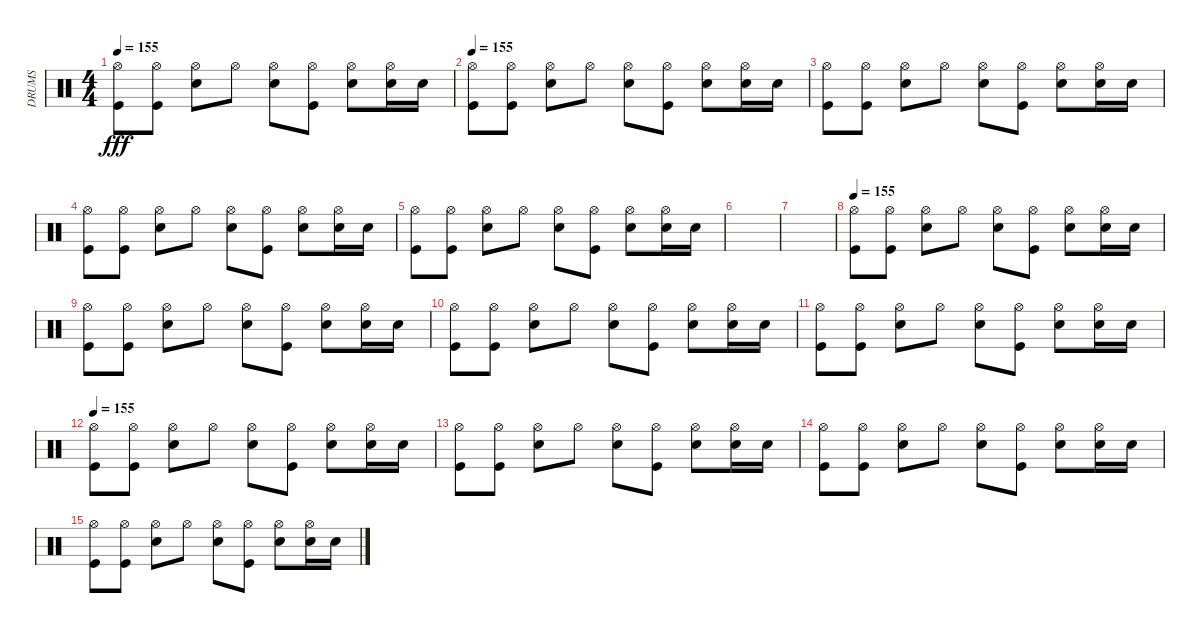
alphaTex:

\track ("DRUMS" "DRUMS") {instrument percussion}
\staff {score}
\articulation defaults
\ts (4 4)
\tempo 155
\clef neutral
\ks c
("Kick (hit)" "Hi-Hat (open)").8{dy fff} ("Kick (hit)" "Hi-Hat (open)").8 ("Snare (hit) 2" "Hi-Hat (open)").8 "Hi-Hat (open)".8 ("Snare (hit) 2" "Hi-Hat (open)").8 ("Kick (hit)" "Hi-Hat (open)").8 ("Snare (hit) 2" "Hi-Hat (open)").8 ("Snare (hit) 2" "Hi-Hat (open)").16 "Snare (hit) 2".16 |
\tempo 155
("Kick (hit)" "Hi-Hat (open)").8 ("Kick (hit)" "Hi-Hat (open)").8 ("Snare (hit) 2" "Hi-Hat (open)").8 "Hi-Hat (open)".8 ("Snare (hit) 2" "Hi-Hat (open)").8 ("Kick (hit)" "Hi-Hat (open)").8 ("Snare (hit) 2" "Hi-Hat (open)").8 ("Snare (hit) 2" "Hi-Hat (open)").16 "Snare (hit) 2".16 |
("Kick (hit)" "Hi-Hat (open)").8 ("Kick (hit)" "Hi-Hat (open)").8 ("Snare (hit) 2" "Hi-Hat (open)").8 "Hi-Hat (open)".8 ("Snare (hit) 2" "Hi-Hat (open)").8 ("Kick (hit)" "Hi-Hat (open)").8 ("Snare (hit) 2" "Hi-Hat (open)").8 ("Snare (hit) 2" "Hi-Hat (open)").16 "Snare (hit) 2".16 |
("Kick (hit)" "Hi-Hat (open)").8 ("Kick (hit)" "Hi-Hat (open)").8 ("Snare (hit) 2" "Hi-Hat (open)").8 "Hi-Hat (open)".8 ("Snare (hit) 2" "Hi-Hat (open)").8 ("Kick (hit)" "Hi-Hat (open)").8 ("Snare (hit) 2" "Hi-Hat (open)").8 ("Snare (hit) 2" "Hi-Hat (open)").16 "Snare (hit) 2".16 |
("Kick (hit)" "Hi-Hat (open)").8 ("Kick (hit)" "Hi-Hat (open)").8 ("Snare (hit) 2" "Hi-Hat (open)").8 "Hi-Hat (open)".8 ("Snare (hit) 2" "Hi-Hat (open)").8 ("Kick (hit)" "Hi-Hat (open)").8 ("Snare (hit) 2" "Hi-Hat (open)").8 ("Snare (hit) 2" "Hi-Hat (open)").16 "Snare (hit) 2".16 |
|
|
\tempo 155
("Kick (hit)" "Hi-Hat (open)").8{volume 11} ("Kick (hit)" "Hi-Hat (open)").8 ("Snare (hit) 2" "Hi-Hat (open)").8 "Hi-Hat (open)".8 ("Snare (hit) 2" "Hi-Hat (open)").8 ("Kick (hit)" "Hi-Hat (open)").8 ("Snare (hit) 2" "Hi-Hat (open)").8 ("Snare (hit) 2" "Hi-Hat (open)").16 "Snare (hit) 2".16 |
("Kick (hit)" "Hi-Hat (open)").8 ("Kick (hit)" "Hi-Hat (open)").8 ("Snare (hit) 2" "Hi-Hat (open)").8 "Hi-Hat (open)".8 ("Snare (hit) 2" "Hi-Hat (open)").8 ("Kick (hit)" "Hi-Hat (open)").8 ("Snare (hit) 2" "Hi-Hat (open)").8 ("Snare (hit) 2" "Hi-Hat (open)").16 "Snare (hit) 2".16 |
("Kick (hit)" "Hi-Hat (open)").8{volume 8} ("Kick (hit)" "Hi-Hat (open)").8 ("Snare (hit) 2" "Hi-Hat (open)").8 "Hi-Hat (open)".8 ("Snare (hit) 2" "Hi-Hat (open)").8 ("Kick (hit)" "Hi-Hat (open)").8 ("Snare (hit) 2" "Hi-Hat (open)").8 ("Snare (hit) 2" "Hi-Hat (open)").16 "Snare (hit) 2".16 |
("Kick (hit)" "Hi-Hat (open)").8 ("Kick (hit)" "Hi-Hat (open)").8 ("Snare (hit) 2" "Hi-Hat (open)").8 "Hi-Hat (open)".8 ("Snare (hit) 2" "Hi-Hat (open)").8 ("Kick (hit)" "Hi-Hat (open)").8 ("Snare (hit) 2" "Hi-Hat (open)").8 ("Snare (hit) 2" "Hi-Hat (open)").16 "Snare (hit) 2".16 |
\tempo 155
("Kick (hit)" "Hi-Hat (open)").8{volume 4} ("Kick (hit)" "Hi-Hat (open)").8 ("Snare (hit) 2" "Hi-Hat (open)").8 "Hi-Hat (open)".8 ("Snare (hit) 2" "Hi-Hat (open)").8 ("Kick (hit)" "Hi-Hat (open)").8 ("Snare (hit) 2" "Hi-Hat (open)").8 ("Snare (hit) 2" "Hi-Hat (open)").16 "Snare (hit) 2".16 |
("Kick (hit)" "Hi-Hat (open)").8 ("Kick (hit)" "Hi-Hat (open)").8 ("Snare (hit) 2" "Hi-Hat (open)").8 "Hi-Hat (open)".8 ("Snare (hit) 2" "Hi-Hat (open)").8 ("Kick (hit)" "Hi-Hat (open)").8 ("Snare (hit) 2" "Hi-Hat (open)").8 ("Snare (hit) 2" "Hi-Hat (open)").16 "Snare (hit) 2".16 |
("Kick (hit)" "Hi-Hat (open)").8{volume 2} ("Kick (hit)" "Hi-Hat (open)").8 ("Snare (hit) 2" "Hi-Hat (open)").8 "Hi-Hat (open)".8 ("Snare (hit) 2" "Hi-Hat (open)").8 ("Kick (hit)" "Hi-Hat (open)").8 ("Snare (hit) 2" "Hi-Hat (open)").8 ("Snare (hit) 2" "Hi-Hat (open)").16 "Snare (hit) 2".16 |
("Kick (hit)" "Hi-Hat (open)").8 ("Kick (hit)" "Hi-Hat (open)").8 ("Snare (hit) 2" "Hi-Hat (open)").8 "Hi-Hat (open)".8 ("Snare (hit) 2" "Hi-Hat (open)").8 ("Kick (hit)" "Hi-Hat (open)").8 ("Snare (hit) 2" "Hi-Hat (open)").8 ("Snare (hit) 2" "Hi-Hat (open)").16 "Snare (hit) 2".16
